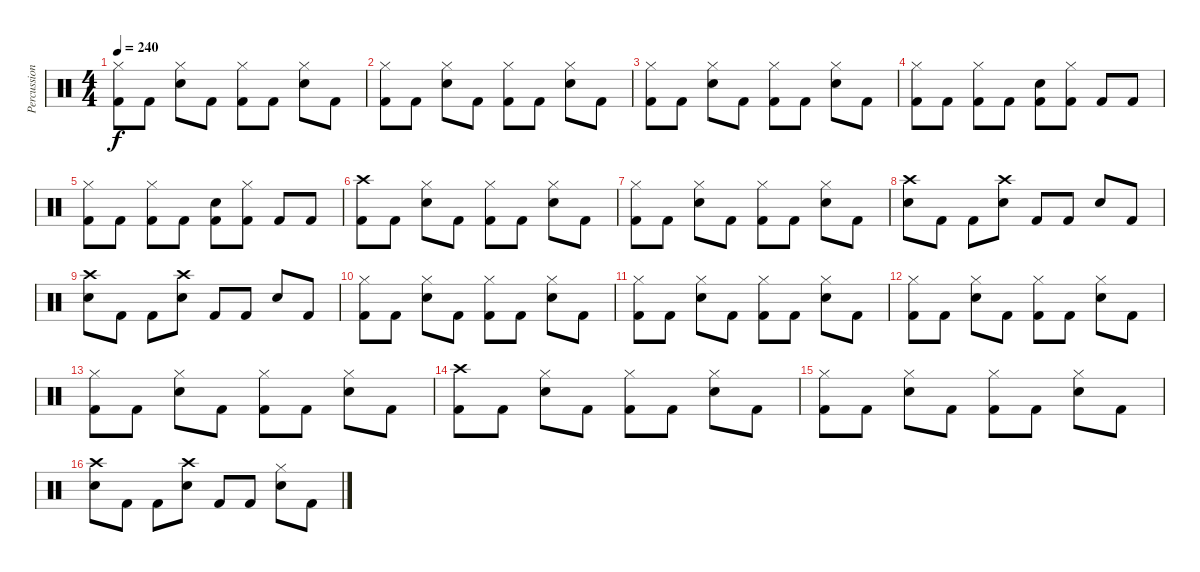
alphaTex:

\track ("Percussion" "Percussion") {instrument percussion}
\staff {score}
\articulation defaults
\ts (4 4)
\tempo 240
\clef neutral
\ks c
("Kick (hit) 2" "Hi-Hat (closed)").8{dy f} "Kick (hit) 2".8 ("Snare (hit) 2" "Hi-Hat (closed)").8 "Kick (hit) 2".8 ("Kick (hit) 2" "Hi-Hat (closed)").8 "Kick (hit) 2".8 ("Snare (hit) 2" "Hi-Hat (closed)").8 "Kick (hit) 2".8 |
("Kick (hit) 2" "Hi-Hat (closed)").8 "Kick (hit) 2".8 ("Snare (hit) 2" "Hi-Hat (closed)").8 "Kick (hit) 2".8 ("Kick (hit) 2" "Hi-Hat (closed)").8 "Kick (hit) 2".8 ("Snare (hit) 2" "Hi-Hat (closed)").8 "Kick (hit) 2".8 |
("Kick (hit) 2" "Hi-Hat (closed)").8 "Kick (hit) 2".8 ("Snare (hit) 2" "Hi-Hat (closed)").8 "Kick (hit) 2".8 ("Kick (hit) 2" "Hi-Hat (closed)").8 "Kick (hit) 2".8 ("Snare (hit) 2" "Hi-Hat (closed)").8 "Kick (hit) 2".8 |
("Kick (hit) 2" "Hi-Hat (closed)").8 "Kick (hit) 2".8 ("Kick (hit) 2" "Hi-Hat (closed)").8 "Kick (hit) 2".8 ("Kick (hit) 2" "Snare (hit) 2").8 ("Kick (hit) 2" "Hi-Hat (closed)").8 "Kick (hit) 2".8 "Kick (hit) 2".8 |
("Kick (hit) 2" "Hi-Hat (closed)").8 "Kick (hit) 2".8 ("Kick (hit) 2" "Hi-Hat (closed)").8 "Kick (hit) 2".8 ("Kick (hit) 2" "Snare (hit) 2").8 ("Kick (hit) 2" "Hi-Hat (closed)").8 "Kick (hit) 2".8 "Kick (hit) 2".8 |
("Kick (hit) 2" "Crash high (hit)").8 "Kick (hit) 2".8 ("Snare (hit) 2" "Hi-Hat (closed)").8 "Kick (hit) 2".8 ("Kick (hit) 2" "Hi-Hat (closed)").8 "Kick (hit) 2".8 ("Snare (hit) 2" "Hi-Hat (closed)").8 "Kick (hit) 2".8 |
("Kick (hit) 2" "Hi-Hat (closed)").8 "Kick (hit) 2".8 ("Snare (hit) 2" "Hi-Hat (closed)").8 "Kick (hit) 2".8 ("Kick (hit) 2" "Hi-Hat (closed)").8 "Kick (hit) 2".8 ("Snare (hit) 2" "Hi-Hat (closed)").8 "Kick (hit) 2".8 |
("Snare (hit) 2" "Crash high (hit)").8 "Kick (hit) 2".8 "Kick (hit) 2".8 ("Snare (hit) 2" "Crash high (hit)").8 "Kick (hit) 2".8 "Kick (hit) 2".8 "Snare (hit) 2".8 "Kick (hit) 2".8 |
("Snare (hit) 2" "Crash high (hit)").8 "Kick (hit) 2".8 "Kick (hit) 2".8 ("Snare (hit) 2" "Crash high (hit)").8 "Kick (hit) 2".8 "Kick (hit) 2".8 "Snare (hit) 2".8 "Kick (hit) 2".8 |
("Kick (hit) 2" "Hi-Hat (closed)").8 "Kick (hit) 2".8 ("Snare (hit) 2" "Hi-Hat (closed)").8 "Kick (hit) 2".8 ("Kick (hit) 2" "Hi-Hat (closed)").8 "Kick (hit) 2".8 ("Snare (hit) 2" "Hi-Hat (closed)").8 "Kick (hit) 2".8 |
("Kick (hit) 2" "Hi-Hat (closed)").8 "Kick (hit) 2".8 ("Snare (hit) 2" "Hi-Hat (closed)").8 "Kick (hit) 2".8 ("Kick (hit) 2" "Hi-Hat (closed)").8 "Kick (hit) 2".8 ("Snare (hit) 2" "Hi-Hat (closed)").8 "Kick (hit) 2".8 |
("Kick (hit) 2" "Hi-Hat (closed)").8 "Kick (hit) 2".8 ("Snare (hit) 2" "Hi-Hat (closed)").8 "Kick (hit) 2".8 ("Kick (hit) 2" "Hi-Hat (closed)").8 "Kick (hit) 2".8 ("Snare (hit) 2" "Hi-Hat (closed)").8 "Kick (hit) 2".8 |
("Kick (hit) 2" "Hi-Hat (closed)").8 "Kick (hit) 2".8 ("Snare (hit) 2" "Hi-Hat (closed)").8 "Kick (hit) 2".8 ("Kick (hit) 2" "Hi-Hat (closed)").8 "Kick (hit) 2".8 ("Snare (hit) 2" "Hi-Hat (closed)").8 "Kick (hit) 2".8 |
("Kick (hit) 2" "Crash high (hit)").8 "Kick (hit) 2".8 ("Snare (hit) 2" "Hi-Hat (closed)").8 "Kick (hit) 2".8 ("Kick (hit) 2" "Hi-Hat (closed)").8 "Kick (hit) 2".8 ("Snare (hit) 2" "Hi-Hat (closed)").8 "Kick (hit) 2".8 |
("Kick (hit) 2" "Hi-Hat (closed)").8 "Kick (hit) 2".8 ("Snare (hit) 2" "Hi-Hat (closed)").8 "Kick (hit) 2".8 ("Kick (hit) 2" "Hi-Hat (closed)").8 "Kick (hit) 2".8 ("Snare (hit) 2" "Hi-Hat (closed)").8 "Kick (hit) 2".8 |
("Snare (hit) 2" "Crash high (hit)").8 "Kick (hit) 2".8 "Kick (hit) 2".8 ("Snare (hit) 2" "Crash high (hit)").8 "Kick (hit) 2".8 "Kick (hit) 2".8 ("Snare (hit) 2" "Hi-Hat (closed)").8 "Kick (hit) 2".8
